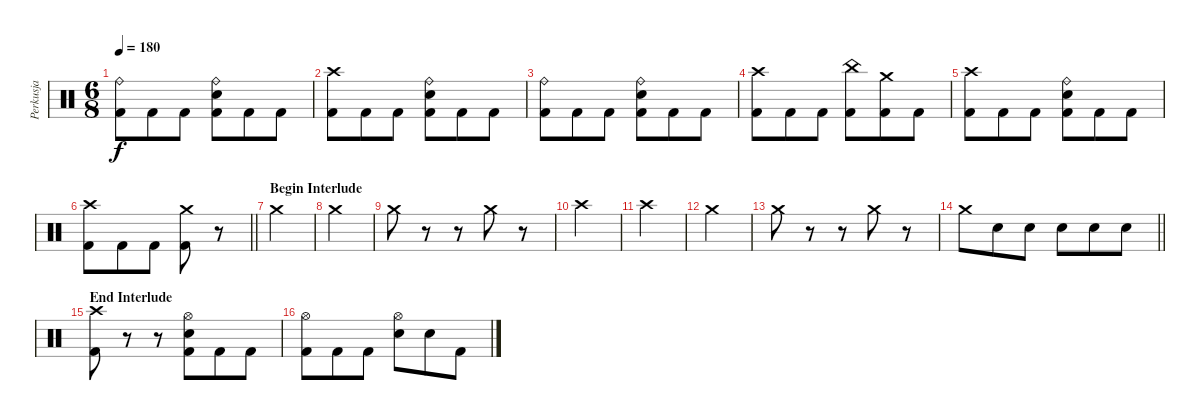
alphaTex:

\track ("Perkusja" "Perkusja") {instrument percussion}
\staff {score}
\articulation defaults
\ts (6 8)
\tempo 180
\clef neutral
\ks c
("Ride (bell)" "Kick (hit) 2").8{dy f} "Kick (hit) 2".8 "Kick (hit) 2".8 ("Ride (bell)" "Snare (hit) 2" "Kick (hit) 2").8 "Kick (hit) 2".8 "Kick (hit) 2".8 |
("Crash high (hit)" "Kick (hit) 2").8 "Kick (hit) 2".8 "Kick (hit) 2".8 ("Ride (bell)" "Snare (hit) 2" "Kick (hit) 2").8 "Kick (hit) 2".8 "Kick (hit) 2".8 |
("Ride (bell)" "Kick (hit) 2").8 "Kick (hit) 2".8 "Kick (hit) 2".8 ("Ride (bell)" "Snare (hit) 2" "Kick (hit) 2").8 "Kick (hit) 2".8 "Kick (hit) 2".8 |
("Crash high (hit)" "Kick (hit) 2").8 "Kick (hit) 2".8 "Kick (hit) 2".8 ("China (hit)" "Kick (hit) 2").8 ("Crash medium (hit)" "Kick (hit) 2").8 "Kick (hit) 2".8 |
("Crash high (hit)" "Kick (hit) 2").8 "Kick (hit) 2".8 "Kick (hit) 2".8 ("Ride (bell)" "Snare (hit) 2" "Kick (hit) 2").8 "Kick (hit) 2".8 "Kick (hit) 2".8 |
\barLineRight lightlight
("Crash high (hit)" "Kick (hit) 2").8 "Kick (hit) 2".8 "Kick (hit) 2".8 ("Crash medium (hit)" "Kick (hit) 2").8 r.8 |
\section ("" "Begin Interlude")
"Crash medium (hit)".4 |
"Crash medium (hit)".4 |
"Crash medium (hit)".8 r.8 r.8 "Crash medium (hit)".8 r.8 |
"Crash high (hit)".4 |
"Crash high (hit)".4 |
"Crash medium (hit)".4 |
"Crash medium (hit)".8 r.8 r.8 "Crash medium (hit)".8 r.8 |
\barLineRight lightlight "Crash medium (hit)".8 "Snare (hit) 2".8 "Snare (hit) 2".8 "Snare (hit) 2".8 "Snare (hit) 2".8 "Snare (hit) 2".8
|
\section ("" "End Interlude")
("Crash high (hit)" "Kick (hit) 2").8 r.8 r.8 ("Hi-Hat (open)" "Snare (hit) 2" "Kick (hit) 2").8 "Kick (hit) 2".8 "Kick (hit) 2".8 |
("Hi-Hat (open)" "Kick (hit) 2").8 "Kick (hit) 2".8 "Kick (hit) 2".8 ("Hi-Hat (open)" "Snare (hit) 2").8 "Snare (hit) 2".8 "Kick (hit) 2".8
